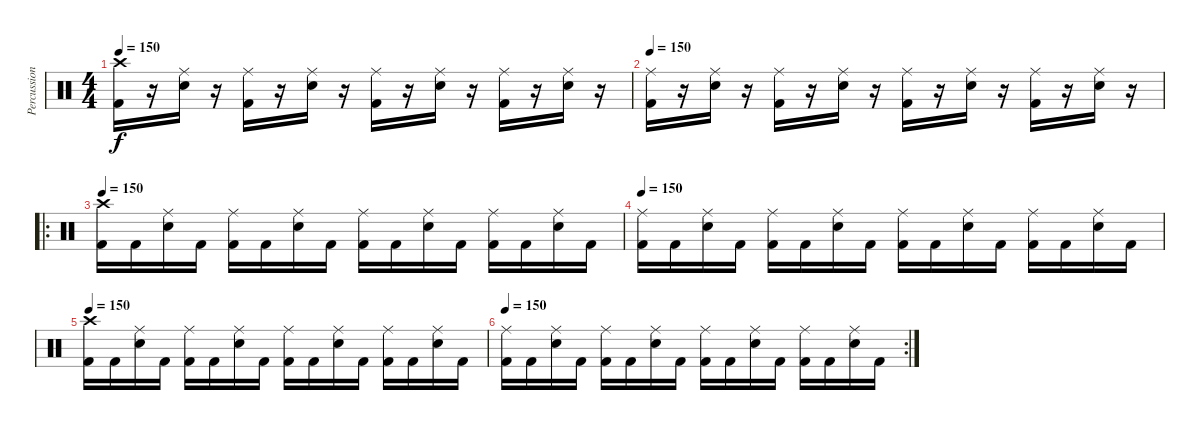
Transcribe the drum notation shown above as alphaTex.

\track ("Percussion" "Percussion") {instrument percussion}
\staff {score}
\articulation defaults
\ts (4 4)
\tempo 150
\clef neutral
\ks c
("Kick (hit) 2" "Crash high (hit)").16{dy f} r.16 ("Ride (middle)" "Snare (hit) 2").16 r.16 ("Kick (hit) 2" "Ride (middle)").16 r.16 ("Snare (hit) 2" "Ride (middle)").16 r.16 ("Kick (hit) 2" "Ride (middle)").16 r.16 ("Snare (hit) 2" "Ride (middle)").16 r.16 ("Kick (hit) 2" "Ride (middle)").16 r.16 ("Snare (hit) 2" "Ride (middle)").16 r.16 |
\tempo 150
("Kick (hit) 2" "Ride (middle)").16 r.16 ("Ride (middle)" "Snare (hit) 2").16 r.16 ("Kick (hit) 2" "Ride (middle)").16 r.16 ("Snare (hit) 2" "Ride (middle)").16 r.16 ("Kick (hit) 2" "Ride (middle)").16 r.16 ("Snare (hit) 2" "Ride (middle)").16 r.16 ("Kick (hit) 2" "Ride (middle)").16 r.16 ("Snare (hit) 2" "Ride (middle)").16 r.16 |
\ro
\tempo 150
("Kick (hit) 2" "Crash high (hit)").16 "Kick (hit) 2".16 ("Ride (middle)" "Snare (hit) 2").16 "Kick (hit) 2".16 ("Kick (hit) 2" "Ride (middle)").16 "Kick (hit) 2".16 ("Snare (hit) 2" "Ride (middle)").16 "Kick (hit) 2".16 ("Kick (hit) 2" "Ride (middle)").16 "Kick (hit) 2".16 ("Snare (hit) 2" "Ride (middle)").16 "Kick (hit) 2".16 ("Kick (hit) 2" "Ride (middle)").16 "Kick (hit) 2".16 ("Snare (hit) 2" "Ride (middle)").16 "Kick (hit) 2".16 |
\tempo 150
("Kick (hit) 2" "Ride (middle)").16 "Kick (hit) 2".16 ("Ride (middle)" "Snare (hit) 2").16 "Kick (hit) 2".16 ("Kick (hit) 2" "Ride (middle)").16 "Kick (hit) 2".16 ("Snare (hit) 2" "Ride (middle)").16 "Kick (hit) 2".16 ("Kick (hit) 2" "Ride (middle)").16 "Kick (hit) 2".16 ("Snare (hit) 2" "Ride (middle)").16 "Kick (hit) 2".16 ("Kick (hit) 2" "Ride (middle)").16 "Kick (hit) 2".16 ("Snare (hit) 2" "Ride (middle)").16 "Kick (hit) 2".16 |
\tempo 150
("Kick (hit) 2" "Crash high (hit)").16 "Kick (hit) 2".16 ("Ride (middle)" "Snare (hit) 2").16 "Kick (hit) 2".16 ("Kick (hit) 2" "Ride (middle)").16 "Kick (hit) 2".16 ("Snare (hit) 2" "Ride (middle)").16 "Kick (hit) 2".16 ("Kick (hit) 2" "Ride (middle)").16 "Kick (hit) 2".16 ("Snare (hit) 2" "Ride (middle)").16 "Kick (hit) 2".16 ("Kick (hit) 2" "Ride (middle)").16 "Kick (hit) 2".16 ("Snare (hit) 2" "Ride (middle)").16 "Kick (hit) 2".16 |
\rc 2
\tempo 150
("Kick (hit) 2" "Ride (middle)").16 "Kick (hit) 2".16 ("Ride (middle)" "Snare (hit) 2").16 "Kick (hit) 2".16 ("Kick (hit) 2" "Ride (middle)").16 "Kick (hit) 2".16 ("Snare (hit) 2" "Ride (middle)").16 "Kick (hit) 2".16 ("Kick (hit) 2" "Ride (middle)").16 "Kick (hit) 2".16 ("Snare (hit) 2" "Ride (middle)").16 "Kick (hit) 2".16 ("Kick (hit) 2" "Ride (middle)").16 "Kick (hit) 2".16 ("Snare (hit) 2" "Ride (middle)").16 "Kick (hit) 2".16
